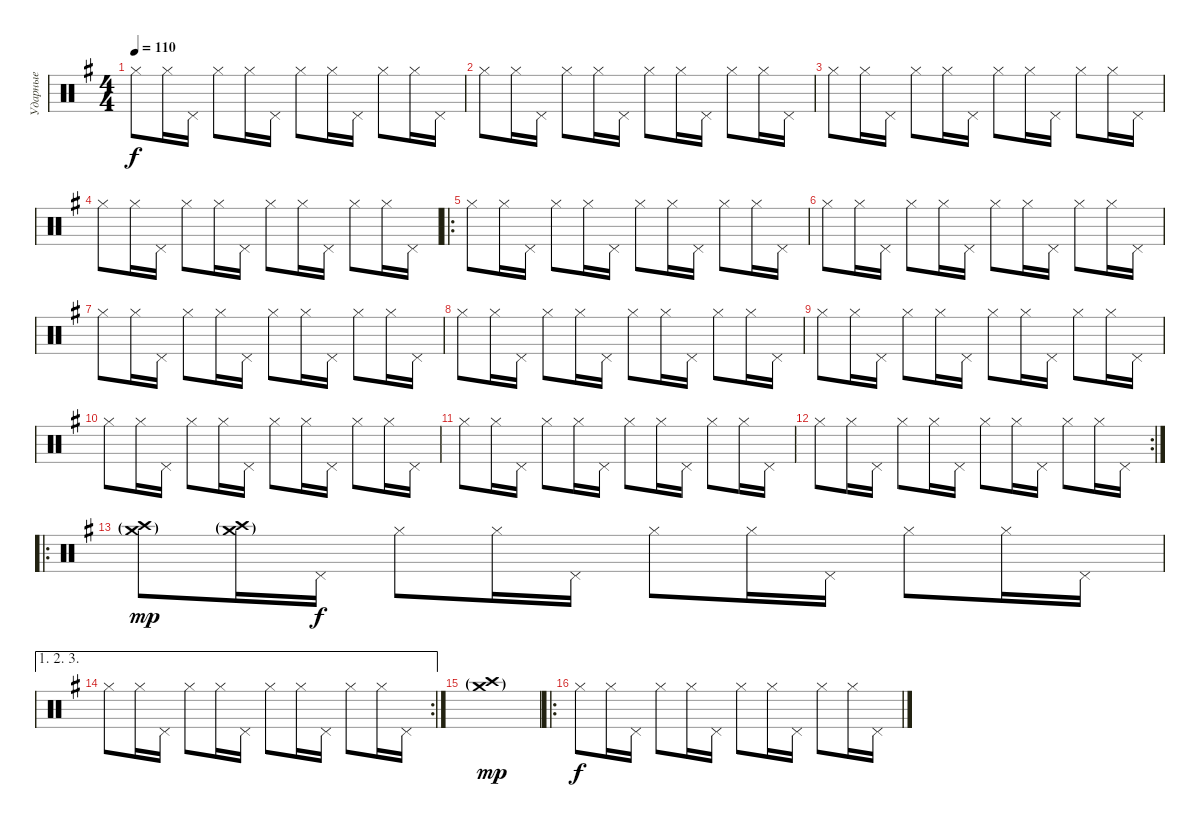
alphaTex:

\track ("Ударные" "Ударные") {instrument percussion}
\staff {score}
\articulation defaults
\ts (4 4)
\tempo 110
\clef neutral
\ks eminor "Hi-Hat (closed)".8{dy f} "Hi-Hat (closed)".16 "Pedal Hi-Hat (hit)".16 "Hi-Hat (closed)".8 "Hi-Hat (closed)".16 "Pedal Hi-Hat (hit)".16 "Hi-Hat (closed)".8 "Hi-Hat (closed)".16 "Pedal Hi-Hat (hit)".16 "Hi-Hat (closed)".8 "Hi-Hat (closed)".16 "Pedal Hi-Hat (hit)".16
|
"Hi-Hat (closed)".8 "Hi-Hat (closed)".16 "Pedal Hi-Hat (hit)".16 "Hi-Hat (closed)".8 "Hi-Hat (closed)".16 "Pedal Hi-Hat (hit)".16 "Hi-Hat (closed)".8 "Hi-Hat (closed)".16 "Pedal Hi-Hat (hit)".16 "Hi-Hat (closed)".8 "Hi-Hat (closed)".16 "Pedal Hi-Hat (hit)".16 |
"Hi-Hat (closed)".8 "Hi-Hat (closed)".16 "Pedal Hi-Hat (hit)".16 "Hi-Hat (closed)".8 "Hi-Hat (closed)".16 "Pedal Hi-Hat (hit)".16 "Hi-Hat (closed)".8 "Hi-Hat (closed)".16 "Pedal Hi-Hat (hit)".16 "Hi-Hat (closed)".8 "Hi-Hat (closed)".16 "Pedal Hi-Hat (hit)".16 |
"Hi-Hat (closed)".8 "Hi-Hat (closed)".16 "Pedal Hi-Hat (hit)".16 "Hi-Hat (closed)".8 "Hi-Hat (closed)".16 "Pedal Hi-Hat (hit)".16 "Hi-Hat (closed)".8 "Hi-Hat (closed)".16 "Pedal Hi-Hat (hit)".16 "Hi-Hat (closed)".8 "Hi-Hat (closed)".16 "Pedal Hi-Hat (hit)".16 |
\ro "Hi-Hat (closed)".8 "Hi-Hat (closed)".16 "Pedal Hi-Hat (hit)".16 "Hi-Hat (closed)".8 "Hi-Hat (closed)".16 "Pedal Hi-Hat (hit)".16 "Hi-Hat (closed)".8 "Hi-Hat (closed)".16 "Pedal Hi-Hat (hit)".16 "Hi-Hat (closed)".8 "Hi-Hat (closed)".16 "Pedal Hi-Hat (hit)".16
|
"Hi-Hat (closed)".8 "Hi-Hat (closed)".16 "Pedal Hi-Hat (hit)".16 "Hi-Hat (closed)".8 "Hi-Hat (closed)".16 "Pedal Hi-Hat (hit)".16 "Hi-Hat (closed)".8 "Hi-Hat (closed)".16 "Pedal Hi-Hat (hit)".16 "Hi-Hat (closed)".8 "Hi-Hat (closed)".16 "Pedal Hi-Hat (hit)".16 |
"Hi-Hat (closed)".8 "Hi-Hat (closed)".16 "Pedal Hi-Hat (hit)".16 "Hi-Hat (closed)".8 "Hi-Hat (closed)".16 "Pedal Hi-Hat (hit)".16 "Hi-Hat (closed)".8 "Hi-Hat (closed)".16 "Pedal Hi-Hat (hit)".16 "Hi-Hat (closed)".8 "Hi-Hat (closed)".16 "Pedal Hi-Hat (hit)".16 |
"Hi-Hat (closed)".8 "Hi-Hat (closed)".16 "Pedal Hi-Hat (hit)".16 "Hi-Hat (closed)".8 "Hi-Hat (closed)".16 "Pedal Hi-Hat (hit)".16 "Hi-Hat (closed)".8 "Hi-Hat (closed)".16 "Pedal Hi-Hat (hit)".16 "Hi-Hat (closed)".8 "Hi-Hat (closed)".16 "Pedal Hi-Hat (hit)".16 |
"Hi-Hat (closed)".8 "Hi-Hat (closed)".16 "Pedal Hi-Hat (hit)".16 "Hi-Hat (closed)".8 "Hi-Hat (closed)".16 "Pedal Hi-Hat (hit)".16 "Hi-Hat (closed)".8 "Hi-Hat (closed)".16 "Pedal Hi-Hat (hit)".16 "Hi-Hat (closed)".8 "Hi-Hat (closed)".16 "Pedal Hi-Hat (hit)".16 |
"Hi-Hat (closed)".8 "Hi-Hat (closed)".16 "Pedal Hi-Hat (hit)".16 "Hi-Hat (closed)".8 "Hi-Hat (closed)".16 "Pedal Hi-Hat (hit)".16 "Hi-Hat (closed)".8 "Hi-Hat (closed)".16 "Pedal Hi-Hat (hit)".16 "Hi-Hat (closed)".8 "Hi-Hat (closed)".16 "Pedal Hi-Hat (hit)".16 |
"Hi-Hat (closed)".8 "Hi-Hat (closed)".16 "Pedal Hi-Hat (hit)".16 "Hi-Hat (closed)".8 "Hi-Hat (closed)".16 "Pedal Hi-Hat (hit)".16 "Hi-Hat (closed)".8 "Hi-Hat (closed)".16 "Pedal Hi-Hat (hit)".16 "Hi-Hat (closed)".8 "Hi-Hat (closed)".16 "Pedal Hi-Hat (hit)".16 |
\rc 2 "Hi-Hat (closed)".8 "Hi-Hat (closed)".16 "Pedal Hi-Hat (hit)".16 "Hi-Hat (closed)".8 "Hi-Hat (closed)".16 "Pedal Hi-Hat (hit)".16 "Hi-Hat (closed)".8 "Hi-Hat (closed)".16 "Pedal Hi-Hat (hit)".16 "Hi-Hat (closed)".8 "Hi-Hat (closed)".16 "Pedal Hi-Hat (hit)".16
|
\ro
("Crash high (hit)"{g} "Crash medium (hit)"{g}).8{dy mp} ("Crash high (hit)"{g} "Crash medium (hit)"{g}).16 "Pedal Hi-Hat (hit)".16{dy f} "Hi-Hat (closed)".8 "Hi-Hat (closed)".16 "Pedal Hi-Hat (hit)".16 "Hi-Hat (closed)".8 "Hi-Hat (closed)".16 "Pedal Hi-Hat (hit)".16 "Hi-Hat (closed)".8 "Hi-Hat (closed)".16 "Pedal Hi-Hat (hit)".16 |
\ae (1 2 3)
\rc 2 "Hi-Hat (closed)".8 "Hi-Hat (closed)".16 "Pedal Hi-Hat (hit)".16 "Hi-Hat (closed)".8 "Hi-Hat (closed)".16 "Pedal Hi-Hat (hit)".16 "Hi-Hat (closed)".8 "Hi-Hat (closed)".16 "Pedal Hi-Hat (hit)".16 "Hi-Hat (closed)".8 "Hi-Hat (closed)".16 "Pedal Hi-Hat (hit)".16
|
("Crash high (hit)"{g} "Crash medium (hit)"{g}).1{dy mp} |
\ro "Hi-Hat (closed)".8{dy f} "Hi-Hat (closed)".16 "Pedal Hi-Hat (hit)".16 "Hi-Hat (closed)".8 "Hi-Hat (closed)".16 "Pedal Hi-Hat (hit)".16 "Hi-Hat (closed)".8 "Hi-Hat (closed)".16 "Pedal Hi-Hat (hit)".16 "Hi-Hat (closed)".8 "Hi-Hat (closed)".16 "Pedal Hi-Hat (hit)".16
